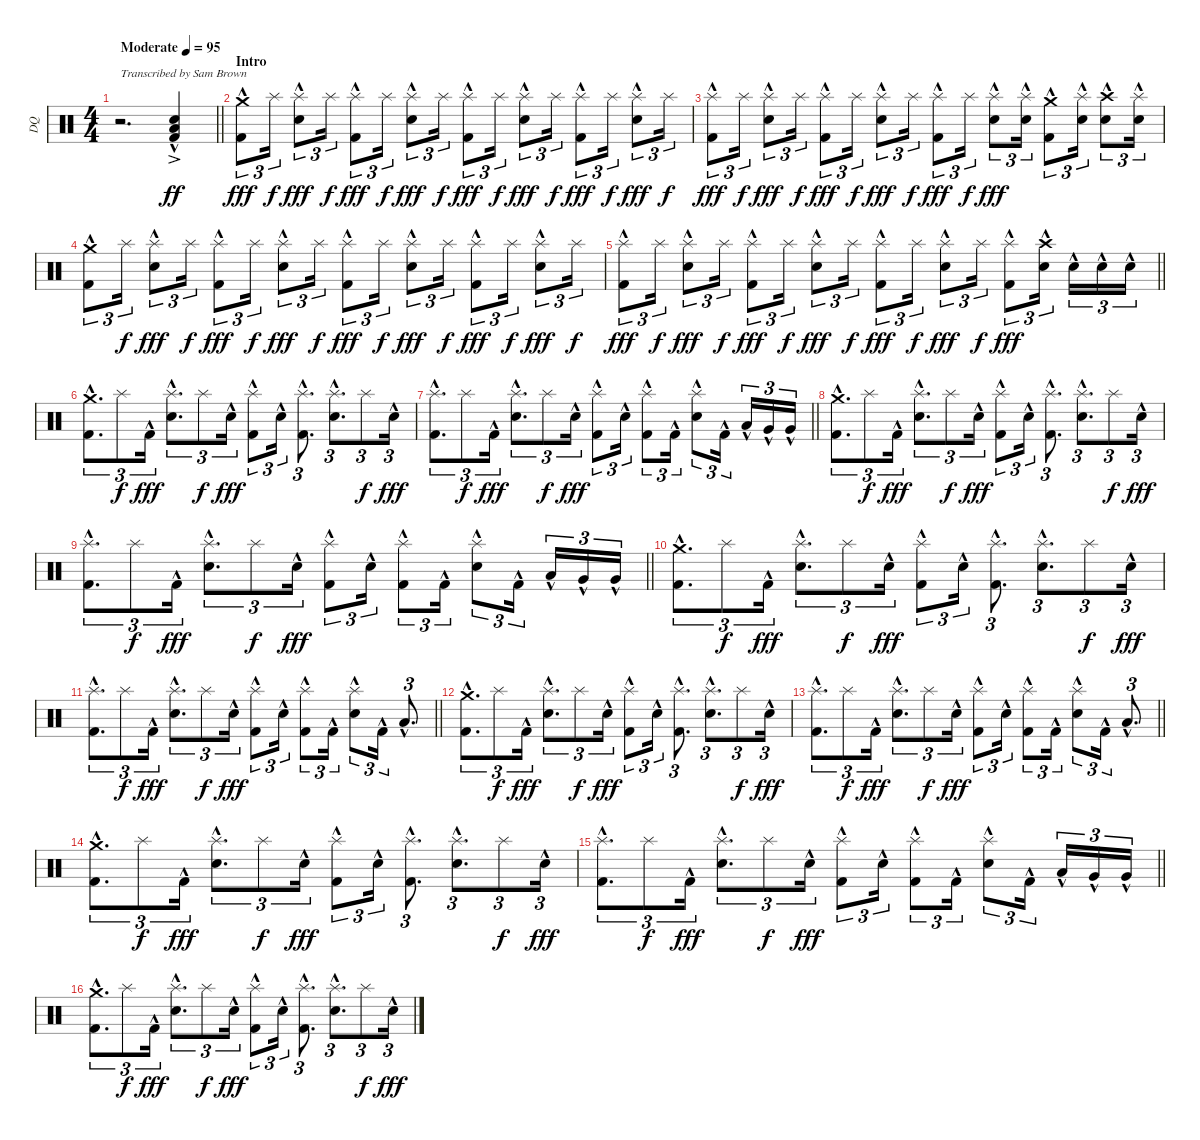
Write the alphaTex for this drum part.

\track ("DQ" "DQ") {instrument percussion}
\staff {score}
\articulation defaults
\ts (4 4)
\section ("" "")
\tempo (95 "Moderate")
\clef neutral
\barLineRight lightlight
\ks c
r.2{d txt "Transcribed by Sam Brown" dy ff} ("Kick (hit) 2"{hac} "Snare (hit) 2"{hac} "Low Floor Tom (hit)"{ac}).4 |
\section ("" "Intro")
("Kick (hit) 2"{hac} "Crash medium (hit)").8{tu (3 2) dy fff} "Splash (hit)".16{tu (3 2) dy f} ("Snare (hit) 2"{hac} "Splash (hit)").8{tu (3 2) dy fff} "Splash (hit)".16{tu (3 2) dy f} ("Kick (hit) 2"{hac} "Splash (hit)").8{tu (3 2) dy fff} "Splash (hit)".16{tu (3 2) dy f} ("Snare (hit) 2"{hac} "Splash (hit)").8{tu (3 2) dy fff} "Splash (hit)".16{tu (3 2) dy f} ("Kick (hit) 2"{hac} "Splash (hit)").8{tu (3 2) dy fff} "Splash (hit)".16{tu (3 2) dy f} ("Snare (hit) 2"{hac} "Splash (hit)").8{tu (3 2) dy fff} "Splash (hit)".16{tu (3 2) dy f} ("Kick (hit) 2"{hac} "Splash (hit)").8{tu (3 2) dy fff} "Splash (hit)".16{tu (3 2) dy f} ("Snare (hit) 2"{hac} "Splash (hit)").8{tu (3 2) dy fff} "Splash (hit)".16{tu (3 2) dy f} |
("Kick (hit) 2"{hac} "Splash (hit)").8{tu (3 2) dy fff} "Splash (hit)".16{tu (3 2) dy f} ("Snare (hit) 2"{hac} "Splash (hit)").8{tu (3 2) dy fff} "Splash (hit)".16{tu (3 2) dy f} ("Kick (hit) 2"{hac} "Splash (hit)").8{tu (3 2) dy fff} "Splash (hit)".16{tu (3 2) dy f} ("Snare (hit) 2"{hac} "Splash (hit)").8{tu (3 2) dy fff} "Splash (hit)".16{tu (3 2) dy f} ("Kick (hit) 2"{hac} "Splash (hit)").8{tu (3 2) dy fff} "Splash (hit)".16{tu (3 2) dy f} ("Snare (hit) 2"{hac} "Splash (hit)").8{tu (3 2) dy fff} ("Snare (hit) 2"{hac} "Splash (hit)").16{tu (3 2)} ("Kick (hit) 2"{hac} "Crash medium (hit)").8{tu (3 2)} ("Snare (hit) 2"{hac} "Splash (hit)").16{tu (3 2)} ("Snare (hit) 2"{hac} "Crash high (hit)").8{tu (3 2)} ("Snare (hit) 2"{hac} "Splash (hit)").16{tu (3 2)} |
("Kick (hit) 2"{hac} "Crash medium (hit)").8{tu (3 2)} "Splash (hit)".16{tu (3 2) dy f} ("Snare (hit) 2"{hac} "Splash (hit)").8{tu (3 2) dy fff} "Splash (hit)".16{tu (3 2) dy f} ("Kick (hit) 2"{hac} "Splash (hit)").8{tu (3 2) dy fff} "Splash (hit)".16{tu (3 2) dy f} ("Snare (hit) 2"{hac} "Splash (hit)").8{tu (3 2) dy fff} "Splash (hit)".16{tu (3 2) dy f} ("Kick (hit) 2"{hac} "Splash (hit)").8{tu (3 2) dy fff} "Splash (hit)".16{tu (3 2) dy f} ("Snare (hit) 2"{hac} "Splash (hit)").8{tu (3 2) dy fff} "Splash (hit)".16{tu (3 2) dy f} ("Kick (hit) 2"{hac} "Splash (hit)").8{tu (3 2) dy fff} "Splash (hit)".16{tu (3 2) dy f} ("Snare (hit) 2"{hac} "Splash (hit)").8{tu (3 2) dy fff} "Splash (hit)".16{tu (3 2) dy f} |
\barLineRight lightlight
("Kick (hit) 2"{hac} "Splash (hit)").8{tu (3 2) dy fff} "Splash (hit)".16{tu (3 2) dy f} ("Snare (hit) 2"{hac} "Splash (hit)").8{tu (3 2) dy fff} "Splash (hit)".16{tu (3 2) dy f} ("Kick (hit) 2"{hac} "Splash (hit)").8{tu (3 2) dy fff} "Splash (hit)".16{tu (3 2) dy f} ("Snare (hit) 2"{hac} "Splash (hit)").8{tu (3 2) dy fff} "Splash (hit)".16{tu (3 2) dy f} ("Kick (hit) 2"{hac} "Splash (hit)").8{tu (3 2) dy fff} "Splash (hit)".16{tu (3 2) dy f} ("Snare (hit) 2"{hac} "Splash (hit)").8{tu (3 2) dy fff} "Splash (hit)".16{tu (3 2) dy f} ("Kick (hit) 2"{hac} "Splash (hit)").8{tu (3 2) dy fff} ("Snare (hit) 2"{hac} "Crash high (hit)").16{tu (3 2) beam splitsecondary} "Snare (hit) 2"{hac}.16{tu (3 2)} "Snare (hit) 2"{hac}.16{tu (3 2)} "Snare (hit) 2"{hac}.16{tu (3 2)} |
\section ("" "")
("Kick (hit) 2"{hac} "Crash medium (hit)").8{d tu (3 2)} "Splash (hit)".8{tu (3 2) dy f} "Kick (hit) 2"{hac}.16{tu (3 2) dy fff} ("Snare (hit) 2"{hac} "Splash (hit)").8{d tu (3 2)} "Splash (hit)".8{tu (3 2) dy f} "Snare (hit) 2"{hac}.16{tu (3 2) dy fff} ("Kick (hit) 2"{hac} "Splash (hit)").8{tu (3 2)} "Snare (hit) 2"{hac}.16{tu (3 2)} ("Kick (hit) 2"{hac} "Splash (hit)").8{d tu (3 2)} ("Snare (hit) 2"{hac} "Splash (hit)").8{d tu (3 2)} "Splash (hit)".8{tu (3 2) dy f} "Snare (hit) 2"{hac}.16{tu (3 2) dy fff} |
\barLineRight lightlight
("Kick (hit) 2"{hac} "Splash (hit)").8{d tu (3 2)} "Splash (hit)".8{tu (3 2) dy f} "Kick (hit) 2"{hac}.16{tu (3 2) dy fff} ("Snare (hit) 2"{hac} "Splash (hit)").8{d tu (3 2)} "Splash (hit)".8{tu (3 2) dy f} "Snare (hit) 2"{hac}.16{tu (3 2) dy fff} ("Kick (hit) 2"{hac} "Splash (hit)").8{tu (3 2)} "Snare (hit) 2"{hac}.16{tu (3 2)} ("Kick (hit) 2"{hac} "Splash (hit)").8{tu (3 2)} "Kick (hit) 2"{hac}.16{tu (3 2)} ("Snare (hit) 2"{hac} "Splash (hit)").8{tu (3 2)} "Kick (hit) 2"{hac}.16{tu (3 2) beam splitsecondary} "Low Tom (hit)"{hac}.16{tu (3 2)} "Very Low Tom (hit)"{hac}.16{tu (3 2)} "Very Low Tom (hit)"{hac}.16{tu (3 2)} |
("Kick (hit) 2"{hac} "Crash medium (hit)").8{d tu (3 2)} "Splash (hit)".8{tu (3 2) dy f} "Kick (hit) 2"{hac}.16{tu (3 2) dy fff} ("Snare (hit) 2"{hac} "Splash (hit)").8{d tu (3 2)} "Splash (hit)".8{tu (3 2) dy f} "Snare (hit) 2"{hac}.16{tu (3 2) dy fff} ("Kick (hit) 2"{hac} "Splash (hit)").8{tu (3 2)} "Snare (hit) 2"{hac}.16{tu (3 2)} ("Kick (hit) 2"{hac} "Splash (hit)").8{d tu (3 2)} ("Snare (hit) 2"{hac} "Splash (hit)").8{d tu (3 2)} "Splash (hit)".8{tu (3 2) dy f} "Snare (hit) 2"{hac}.16{tu (3 2) dy fff} |
\barLineRight lightlight
("Kick (hit) 2"{hac} "Splash (hit)").8{d tu (3 2)} "Splash (hit)".8{tu (3 2) dy f} "Kick (hit) 2"{hac}.16{tu (3 2) dy fff} ("Snare (hit) 2"{hac} "Splash (hit)").8{d tu (3 2)} "Splash (hit)".8{tu (3 2) dy f} "Snare (hit) 2"{hac}.16{tu (3 2) dy fff} ("Kick (hit) 2"{hac} "Splash (hit)").8{tu (3 2)} "Snare (hit) 2"{hac}.16{tu (3 2)} ("Kick (hit) 2"{hac} "Splash (hit)").8{tu (3 2)} "Kick (hit) 2"{hac}.16{tu (3 2)} ("Snare (hit) 2"{hac} "Splash (hit)").8{tu (3 2)} "Kick (hit) 2"{hac}.16{tu (3 2) beam splitsecondary} "Low Tom (hit)"{hac}.16{tu (3 2)} "Very Low Tom (hit)"{hac}.16{tu (3 2)} "Very Low Tom (hit)"{hac}.16{tu (3 2)} |
\section ("" "")
("Kick (hit) 2"{hac} "Crash medium (hit)").8{d tu (3 2)} "Splash (hit)".8{tu (3 2) dy f} "Kick (hit) 2"{hac}.16{tu (3 2) dy fff} ("Snare (hit) 2"{hac} "Splash (hit)").8{d tu (3 2)} "Splash (hit)".8{tu (3 2) dy f} "Snare (hit) 2"{hac}.16{tu (3 2) dy fff} ("Kick (hit) 2"{hac} "Splash (hit)").8{tu (3 2)} "Snare (hit) 2"{hac}.16{tu (3 2)} ("Kick (hit) 2"{hac} "Splash (hit)").8{d tu (3 2)} ("Snare (hit) 2"{hac} "Splash (hit)").8{d tu (3 2)} "Splash (hit)".8{tu (3 2) dy f} "Snare (hit) 2"{hac}.16{tu (3 2) dy fff} |
\barLineRight lightlight
("Kick (hit) 2"{hac} "Splash (hit)").8{d tu (3 2)} "Splash (hit)".8{tu (3 2) dy f} "Kick (hit) 2"{hac}.16{tu (3 2) dy fff} ("Snare (hit) 2"{hac} "Splash (hit)").8{d tu (3 2)} "Splash (hit)".8{tu (3 2) dy f} "Snare (hit) 2"{hac}.16{tu (3 2) dy fff} ("Kick (hit) 2"{hac} "Splash (hit)").8{tu (3 2)} "Snare (hit) 2"{hac}.16{tu (3 2)} ("Kick (hit) 2"{hac} "Splash (hit)").8{tu (3 2)} "Kick (hit) 2"{hac}.16{tu (3 2)} ("Snare (hit) 2"{hac} "Splash (hit)").8{tu (3 2)} "Kick (hit) 2"{hac}.16{tu (3 2)} "Low Floor Tom (hit)"{hac}.8{d tu (3 2)} |
("Kick (hit) 2"{hac} "Crash medium (hit)").8{d tu (3 2)} "Splash (hit)".8{tu (3 2) dy f} "Kick (hit) 2"{hac}.16{tu (3 2) dy fff} ("Snare (hit) 2"{hac} "Splash (hit)").8{d tu (3 2)} "Splash (hit)".8{tu (3 2) dy f} "Snare (hit) 2"{hac}.16{tu (3 2) dy fff} ("Kick (hit) 2"{hac} "Splash (hit)").8{tu (3 2)} "Snare (hit) 2"{hac}.16{tu (3 2)} ("Kick (hit) 2"{hac} "Splash (hit)").8{d tu (3 2)} ("Snare (hit) 2"{hac} "Splash (hit)").8{d tu (3 2)} "Splash (hit)".8{tu (3 2) dy f} "Snare (hit) 2"{hac}.16{tu (3 2) dy fff} |
\barLineRight lightlight
("Kick (hit) 2"{hac} "Splash (hit)").8{d tu (3 2)} "Splash (hit)".8{tu (3 2) dy f} "Kick (hit) 2"{hac}.16{tu (3 2) dy fff} ("Snare (hit) 2"{hac} "Splash (hit)").8{d tu (3 2)} "Splash (hit)".8{tu (3 2) dy f} "Snare (hit) 2"{hac}.16{tu (3 2) dy fff} ("Kick (hit) 2"{hac} "Splash (hit)").8{tu (3 2)} "Snare (hit) 2"{hac}.16{tu (3 2)} ("Kick (hit) 2"{hac} "Splash (hit)").8{tu (3 2)} "Kick (hit) 2"{hac}.16{tu (3 2)} ("Snare (hit) 2"{hac} "Splash (hit)").8{tu (3 2)} "Kick (hit) 2"{hac}.16{tu (3 2)} "Low Floor Tom (hit)"{hac}.8{d tu (3 2)} |
\section ("" "")
("Kick (hit) 2"{hac} "Crash medium (hit)").8{d tu (3 2)} "Splash (hit)".8{tu (3 2) dy f} "Kick (hit) 2"{hac}.16{tu (3 2) dy fff} ("Snare (hit) 2"{hac} "Splash (hit)").8{d tu (3 2)} "Splash (hit)".8{tu (3 2) dy f} "Snare (hit) 2"{hac}.16{tu (3 2) dy fff} ("Kick (hit) 2"{hac} "Splash (hit)").8{tu (3 2)} "Snare (hit) 2"{hac}.16{tu (3 2)} ("Kick (hit) 2"{hac} "Splash (hit)").8{d tu (3 2)} ("Snare (hit) 2"{hac} "Splash (hit)").8{d tu (3 2)} "Splash (hit)".8{tu (3 2) dy f} "Snare (hit) 2"{hac}.16{tu (3 2) dy fff} |
\barLineRight lightlight
("Kick (hit) 2"{hac} "Splash (hit)").8{d tu (3 2)} "Splash (hit)".8{tu (3 2) dy f} "Kick (hit) 2"{hac}.16{tu (3 2) dy fff} ("Snare (hit) 2"{hac} "Splash (hit)").8{d tu (3 2)} "Splash (hit)".8{tu (3 2) dy f} "Snare (hit) 2"{hac}.16{tu (3 2) dy fff} ("Kick (hit) 2"{hac} "Splash (hit)").8{tu (3 2)} "Snare (hit) 2"{hac}.16{tu (3 2)} ("Kick (hit) 2"{hac} "Splash (hit)").8{tu (3 2)} "Kick (hit) 2"{hac}.16{tu (3 2)} ("Snare (hit) 2"{hac} "Splash (hit)").8{tu (3 2)} "Kick (hit) 2"{hac}.16{tu (3 2) beam splitsecondary} "Low Tom (hit)"{hac}.16{tu (3 2)} "Very Low Tom (hit)"{hac}.16{tu (3 2)} "Very Low Tom (hit)"{hac}.16{tu (3 2)} |
("Kick (hit) 2"{hac} "Crash medium (hit)").8{d tu (3 2)} "Splash (hit)".8{tu (3 2) dy f} "Kick (hit) 2"{hac}.16{tu (3 2) dy fff} ("Snare (hit) 2"{hac} "Splash (hit)").8{d tu (3 2)} "Splash (hit)".8{tu (3 2) dy f} "Snare (hit) 2"{hac}.16{tu (3 2) dy fff} ("Kick (hit) 2"{hac} "Splash (hit)").8{tu (3 2)} "Snare (hit) 2"{hac}.16{tu (3 2)} ("Kick (hit) 2"{hac} "Splash (hit)").8{d tu (3 2)} ("Snare (hit) 2"{hac} "Splash (hit)").8{d tu (3 2)} "Splash (hit)".8{tu (3 2) dy f} "Snare (hit) 2"{hac}.16{tu (3 2) dy fff}
